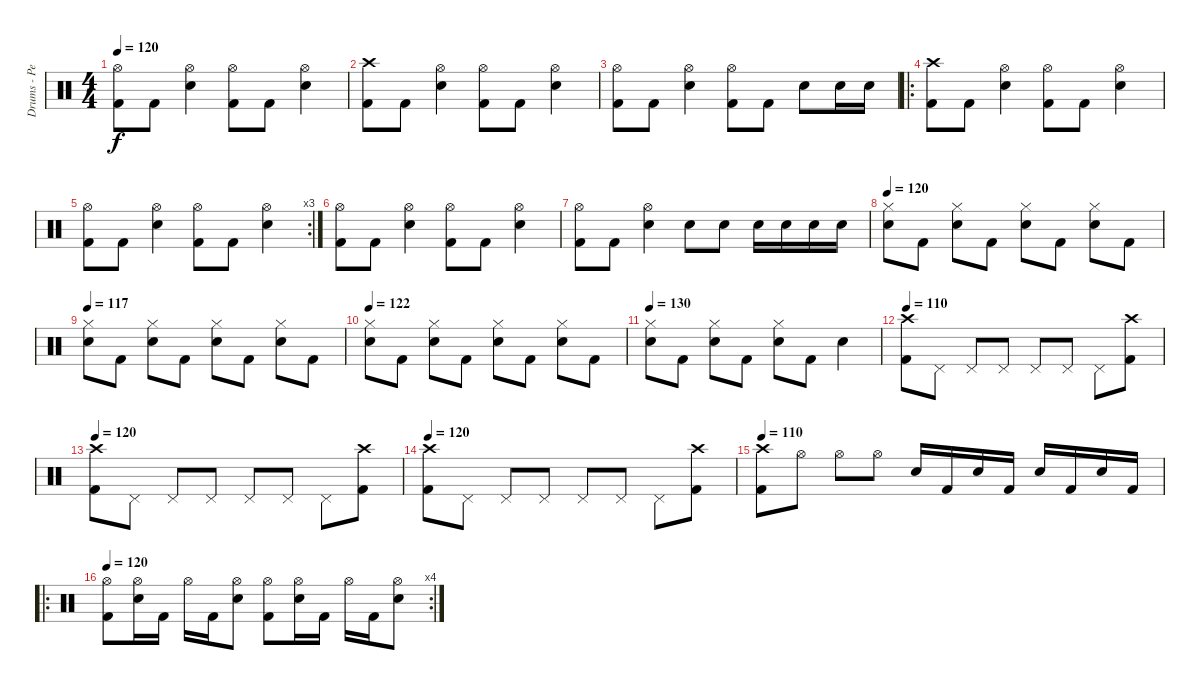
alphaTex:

\track ("Drums - Pete Finestone" "Drums - Pe") {instrument percussion}
\staff {score}
\articulation defaults
\ts (4 4)
\tempo 120
\clef neutral
\ks c
("Hi-Hat (open)" "Kick (hit) 2").8{dy f} "Kick (hit) 2".8 ("Hi-Hat (open)" "Electric Snare (hit)").4 ("Hi-Hat (open)" "Kick (hit) 2").8 "Kick (hit) 2".8 ("Hi-Hat (open)" "Electric Snare (hit)").4 |
("Crash high (hit)" "Kick (hit) 2").8 "Kick (hit) 2".8 ("Hi-Hat (open)" "Electric Snare (hit)").4 ("Hi-Hat (open)" "Kick (hit) 2").8 "Kick (hit) 2".8 ("Hi-Hat (open)" "Electric Snare (hit)").4 |
("Hi-Hat (open)" "Kick (hit) 2").8 "Kick (hit) 2".8 ("Hi-Hat (open)" "Electric Snare (hit)").4 ("Hi-Hat (open)" "Kick (hit) 2").8 "Kick (hit) 2".8 "Electric Snare (hit)".8 "Electric Snare (hit)".16 "Electric Snare (hit)".16 |
\ro
("Crash high (hit)" "Kick (hit) 2").8 "Kick (hit) 2".8 ("Hi-Hat (open)" "Electric Snare (hit)").4 ("Hi-Hat (open)" "Kick (hit) 2").8 "Kick (hit) 2".8 ("Hi-Hat (open)" "Electric Snare (hit)").4 |
\rc 3
("Hi-Hat (open)" "Kick (hit) 2").8 "Kick (hit) 2".8 ("Hi-Hat (open)" "Electric Snare (hit)").4 ("Hi-Hat (open)" "Kick (hit) 2").8 "Kick (hit) 2".8 ("Hi-Hat (open)" "Electric Snare (hit)").4 |
("Hi-Hat (open)" "Kick (hit) 2").8 "Kick (hit) 2".8 ("Hi-Hat (open)" "Electric Snare (hit)").4 ("Hi-Hat (open)" "Kick (hit) 2").8 "Kick (hit) 2".8 ("Hi-Hat (open)" "Electric Snare (hit)").4 |
("Hi-Hat (open)" "Kick (hit) 2").8 "Kick (hit) 2".8 ("Hi-Hat (open)" "Electric Snare (hit)").4 "Electric Snare (hit)".8 "Electric Snare (hit)".8 "Electric Snare (hit)".16 "Electric Snare (hit)".16 "Electric Snare (hit)".16 "Electric Snare (hit)".16 |
\tempo 120
("Hi-Hat (closed)" "Electric Snare (hit)").8 "Kick (hit) 2".8 ("Hi-Hat (closed)" "Electric Snare (hit)").8 "Kick (hit) 2".8 ("Hi-Hat (closed)" "Electric Snare (hit)").8 "Kick (hit) 2".8 ("Hi-Hat (closed)" "Electric Snare (hit)").8 "Kick (hit) 2".8 |
\tempo 125
\tempo 117
("Hi-Hat (closed)" "Electric Snare (hit)").8 "Kick (hit) 2".8 ("Hi-Hat (closed)" "Electric Snare (hit)").8 "Kick (hit) 2".8 ("Hi-Hat (closed)" "Electric Snare (hit)").8 "Kick (hit) 2".8 ("Hi-Hat (closed)" "Electric Snare (hit)").8 "Kick (hit) 2".8 |
\tempo 130
\tempo 122
("Hi-Hat (closed)" "Electric Snare (hit)").8 "Kick (hit) 2".8 ("Hi-Hat (closed)" "Electric Snare (hit)").8 "Kick (hit) 2".8 ("Hi-Hat (closed)" "Electric Snare (hit)").8 "Kick (hit) 2".8 ("Hi-Hat (closed)" "Electric Snare (hit)").8 "Kick (hit) 2".8 |
\tempo 130
("Hi-Hat (closed)" "Electric Snare (hit)").8 "Kick (hit) 2".8 ("Hi-Hat (closed)" "Electric Snare (hit)").8 "Kick (hit) 2".8 ("Hi-Hat (closed)" "Electric Snare (hit)").8 "Kick (hit) 2".8 "Electric Snare (hit)".4 |
\tempo 120
\tempo 110
("Crash high (hit)" "Kick (hit) 2").8 "Pedal Hi-Hat (hit)".8 "Pedal Hi-Hat (hit)".8 "Pedal Hi-Hat (hit)".8 "Pedal Hi-Hat (hit)".8 "Pedal Hi-Hat (hit)".8 "Pedal Hi-Hat (hit)".8 ("Crash high (hit)" "Kick (hit) 2").8 |
\tempo 120
("Crash high (hit)" "Kick (hit) 2").8 "Pedal Hi-Hat (hit)".8 "Pedal Hi-Hat (hit)".8 "Pedal Hi-Hat (hit)".8 "Pedal Hi-Hat (hit)".8 "Pedal Hi-Hat (hit)".8 "Pedal Hi-Hat (hit)".8 ("Crash high (hit)" "Kick (hit) 2").8 |
\tempo 120
("Crash high (hit)" "Kick (hit) 2").8 "Pedal Hi-Hat (hit)".8 "Pedal Hi-Hat (hit)".8 "Pedal Hi-Hat (hit)".8 "Pedal Hi-Hat (hit)".8 "Pedal Hi-Hat (hit)".8 "Pedal Hi-Hat (hit)".8 ("Crash high (hit)" "Kick (hit) 2").8 |
\tempo 120
\tempo 110
("Crash high (hit)" "Kick (hit) 2").8 "Hi-Hat (open)".8 "Hi-Hat (open)".8 "Hi-Hat (open)".8 "Electric Snare (hit)".16 "Kick (hit) 2".16 "Electric Snare (hit)".16 "Kick (hit) 2".16 "Electric Snare (hit)".16 "Kick (hit) 2".16 "Electric Snare (hit)".16 "Kick (hit) 2".16 |
\ro
\rc 4
\tempo 120
("Hi-Hat (open)" "Kick (hit) 2").8 ("Hi-Hat (open)" "Electric Snare (hit)").16 "Kick (hit) 2".16 "Hi-Hat (open)".16 "Kick (hit) 2".16 ("Hi-Hat (open)" "Electric Snare (hit)").8 ("Hi-Hat (open)" "Kick (hit) 2").8 ("Hi-Hat (open)" "Electric Snare (hit)").16 "Kick (hit) 2".16 "Hi-Hat (open)".16 "Kick (hit) 2".16 ("Hi-Hat (open)" "Electric Snare (hit)").8
